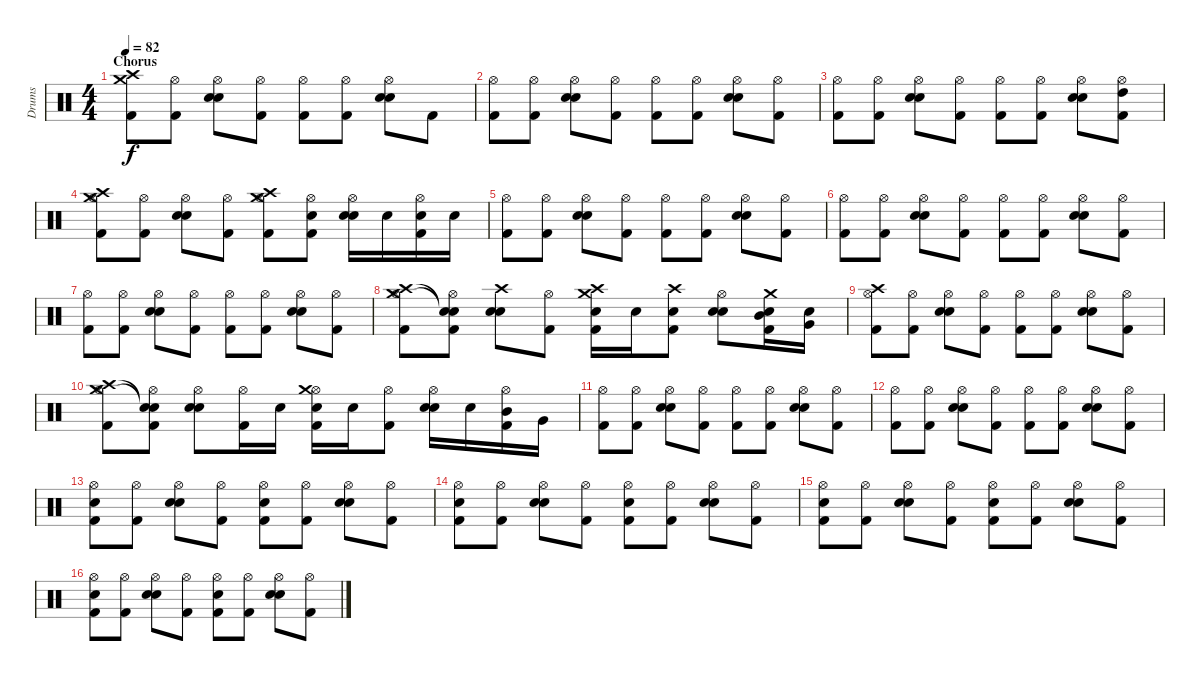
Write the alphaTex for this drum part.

\track ("Drums" "Drums") {instrument percussion}
\staff {score}
\articulation defaults
\ts (4 4)
\section ("" "Chorus")
\tempo 82
\clef neutral
\ks c
("Crash medium (hit)" "Crash high (hit)" "Kick (hit) 2").8{dy f} ("Hi-Hat (open)" "Kick (hit) 2").8 ("Hi-Hat (open)" "Snare (hit) 2" "Electric Snare (hit)").8 ("Hi-Hat (open)" "Kick (hit) 2").8 ("Hi-Hat (open)" "Kick (hit) 2").8 ("Hi-Hat (open)" "Kick (hit) 2").8 ("Hi-Hat (open)" "Snare (hit) 2" "Electric Snare (hit)").8 "Kick (hit) 2".8 |
("Hi-Hat (open)" "Kick (hit) 2").8 ("Hi-Hat (open)" "Kick (hit) 2").8 ("Hi-Hat (open)" "Snare (hit) 2" "Electric Snare (hit)").8 ("Hi-Hat (open)" "Kick (hit) 2").8 ("Hi-Hat (open)" "Kick (hit) 2").8 ("Hi-Hat (open)" "Kick (hit) 2").8 ("Hi-Hat (open)" "Snare (hit) 2" "Electric Snare (hit)").8 ("Hi-Hat (open)" "Kick (hit) 2").8 |
("Hi-Hat (open)" "Kick (hit) 2").8 ("Hi-Hat (open)" "Kick (hit) 2").8 ("Hi-Hat (open)" "Snare (hit) 2" "Electric Snare (hit)").8 ("Hi-Hat (open)" "Kick (hit) 2").8 ("Hi-Hat (open)" "Kick (hit) 2").8 ("Hi-Hat (open)" "Kick (hit) 2").8 ("Hi-Hat (open)" "Snare (hit) 2" "Electric Snare (hit)").8 ("Hi-Hat (open)" "High Tom (hit)" "Kick (hit) 2").8 |
("Hi-Hat (open)" "Crash high (hit)" "Kick (hit) 2" "Crash medium (hit)").8 ("Hi-Hat (open)" "Kick (hit) 2").8 ("Hi-Hat (open)" "Electric Snare (hit)" "Snare (hit) 2").8 ("Hi-Hat (open)" "Kick (hit) 2").8 ("Hi-Hat (open)" "Crash high (hit)" "Kick (hit) 2" "Crash medium (hit)").8 ("Hi-Hat (open)" "Kick (hit) 2" "Snare (hit) 2").8 ("Hi-Hat (open)" "Electric Snare (hit)" "Snare (hit) 2").16 "Snare (hit) 2".16 ("Hi-Hat (open)" "Kick (hit) 2" "Snare (hit) 2").16 "Snare (hit) 2".16 |
("Hi-Hat (open)" "Kick (hit) 2").8 ("Hi-Hat (open)" "Kick (hit) 2").8 ("Hi-Hat (open)" "Snare (hit) 2" "Electric Snare (hit)").8 ("Hi-Hat (open)" "Kick (hit) 2").8 ("Hi-Hat (open)" "Kick (hit) 2").8 ("Hi-Hat (open)" "Kick (hit) 2").8 ("Hi-Hat (open)" "Snare (hit) 2" "Electric Snare (hit)").8 ("Hi-Hat (open)" "Kick (hit) 2").8 |
("Hi-Hat (open)" "Kick (hit) 2").8 ("Hi-Hat (open)" "Kick (hit) 2").8 ("Hi-Hat (open)" "Snare (hit) 2" "Electric Snare (hit)").8 ("Hi-Hat (open)" "Kick (hit) 2").8 ("Hi-Hat (open)" "Kick (hit) 2").8 ("Hi-Hat (open)" "Kick (hit) 2").8 ("Hi-Hat (open)" "Snare (hit) 2" "Electric Snare (hit)").8 ("Hi-Hat (open)" "Kick (hit) 2").8 |
("Hi-Hat (open)" "Kick (hit) 2").8 ("Hi-Hat (open)" "Kick (hit) 2").8 ("Hi-Hat (open)" "Snare (hit) 2" "Electric Snare (hit)").8 ("Hi-Hat (open)" "Kick (hit) 2").8 ("Hi-Hat (open)" "Kick (hit) 2").8 ("Hi-Hat (open)" "Kick (hit) 2").8 ("Hi-Hat (open)" "Snare (hit) 2" "Electric Snare (hit)").8 ("Hi-Hat (open)" "Kick (hit) 2").8 |
("Hi-Hat (open)" "Crash medium (hit)" "Crash high (hit)" "Kick (hit) 2").8 ("Hi-Hat (open)" "Snare (hit)"{t} "Snare (hit)"{t} "Kick (hit) 2").8 ("Crash high (hit)" "Snare (hit) 2" "Electric Snare (hit)").8 ("Hi-Hat (open)" "Kick (hit) 2").8 ("Crash high (hit)" "Snare (hit) 2" "Crash medium (hit)" "Kick (hit) 2").16 "Snare (hit) 2".16 ("Crash high (hit)" "Snare (hit) 2" "Kick (hit) 2").8 ("Hi-Hat (open)" "Snare (hit) 2" "Electric Snare (hit)").8 ("Crash medium (hit)" "Snare (hit) 2" "Kick (hit) 2" "Mid Tom (hit)").16 ("Snare (hit) 2" "Very Low Tom (hit)").16 |
("Hi-Hat (open)" "Crash high (hit)" "Kick (hit) 2").8 ("Hi-Hat (open)" "Kick (hit) 2").8 ("Hi-Hat (open)" "Snare (hit) 2" "Electric Snare (hit)").8 ("Hi-Hat (open)" "Kick (hit) 2").8 ("Hi-Hat (open)" "Kick (hit) 2").8 ("Hi-Hat (open)" "Kick (hit) 2").8 ("Hi-Hat (open)" "Snare (hit) 2" "Electric Snare (hit)").8 ("Hi-Hat (open)" "Kick (hit) 2").8 |
("Hi-Hat (open)" "Crash medium (hit)" "Crash high (hit)" "Kick (hit) 2").8 ("Hi-Hat (open)" "Snare (hit)"{t} "Snare (hit)"{t} "Kick (hit) 2").8 ("Hi-Hat (open)" "Snare (hit) 2" "Electric Snare (hit)").8 ("Hi-Hat (open)" "Kick (hit) 2").16 "Snare (hit) 2".16 ("Hi-Hat (open)" "Snare (hit) 2" "Crash medium (hit)" "Kick (hit) 2").16 "Snare (hit) 2".16 ("Hi-Hat (open)" "Kick (hit) 2").8 ("Hi-Hat (open)" "Snare (hit) 2" "Electric Snare (hit)").16 "Snare (hit) 2".16 ("Hi-Hat (open)" "Kick (hit) 2" "Mid Tom (hit)").16 "Very Low Tom (hit)".16 |
("Hi-Hat (open)" "Kick (hit) 2").8 ("Hi-Hat (open)" "Kick (hit) 2").8 ("Hi-Hat (open)" "Snare (hit) 2" "Electric Snare (hit)").8 ("Hi-Hat (open)" "Kick (hit) 2").8 ("Hi-Hat (open)" "Kick (hit) 2").8 ("Hi-Hat (open)" "Kick (hit) 2").8 ("Hi-Hat (open)" "Snare (hit) 2" "Electric Snare (hit)").8 ("Hi-Hat (open)" "Kick (hit) 2").8 |
("Hi-Hat (open)" "Kick (hit) 2").8 ("Hi-Hat (open)" "Kick (hit) 2").8 ("Hi-Hat (open)" "Snare (hit) 2" "Electric Snare (hit)").8 ("Hi-Hat (open)" "Kick (hit) 2").8 ("Hi-Hat (open)" "Kick (hit) 2").8 ("Hi-Hat (open)" "Kick (hit) 2").8 ("Hi-Hat (open)" "Snare (hit) 2" "Electric Snare (hit)").8 ("Hi-Hat (open)" "Kick (hit) 2").8 |
("Hi-Hat (open)" "Snare (hit) 2" "Kick (hit) 2").8 ("Hi-Hat (open)" "Kick (hit) 2").8 ("Hi-Hat (open)" "Snare (hit) 2" "Electric Snare (hit)").8 ("Hi-Hat (open)" "Kick (hit) 2").8 ("Hi-Hat (open)" "Snare (hit) 2" "Kick (hit) 2").8 ("Hi-Hat (open)" "Kick (hit) 2").8 ("Hi-Hat (open)" "Snare (hit) 2" "Electric Snare (hit)").8 ("Hi-Hat (open)" "Kick (hit) 2").8 |
("Hi-Hat (open)" "Snare (hit) 2" "Kick (hit) 2").8 ("Hi-Hat (open)" "Kick (hit) 2").8 ("Hi-Hat (open)" "Snare (hit) 2" "Electric Snare (hit)").8 ("Hi-Hat (open)" "Kick (hit) 2").8 ("Hi-Hat (open)" "Snare (hit) 2" "Kick (hit) 2").8 ("Hi-Hat (open)" "Kick (hit) 2").8 ("Hi-Hat (open)" "Snare (hit) 2" "Electric Snare (hit)").8 ("Hi-Hat (open)" "Kick (hit) 2").8 |
("Hi-Hat (open)" "Snare (hit) 2" "Kick (hit) 2").8 ("Hi-Hat (open)" "Kick (hit) 2").8 ("Hi-Hat (open)" "Snare (hit) 2" "Electric Snare (hit)").8 ("Hi-Hat (open)" "Kick (hit) 2").8 ("Hi-Hat (open)" "Snare (hit) 2" "Kick (hit) 2").8 ("Hi-Hat (open)" "Kick (hit) 2").8 ("Hi-Hat (open)" "Snare (hit) 2" "Electric Snare (hit)").8 ("Hi-Hat (open)" "Kick (hit) 2").8 |
("Hi-Hat (open)" "Snare (hit) 2" "Kick (hit) 2").8 ("Hi-Hat (open)" "Kick (hit) 2").8 ("Hi-Hat (open)" "Snare (hit) 2" "Electric Snare (hit)").8 ("Hi-Hat (open)" "Kick (hit) 2").8 ("Hi-Hat (open)" "Snare (hit) 2" "Kick (hit) 2").8 ("Hi-Hat (open)" "Kick (hit) 2").8 ("Hi-Hat (open)" "Snare (hit) 2" "Electric Snare (hit)").8 ("Hi-Hat (open)" "Kick (hit) 2").8
